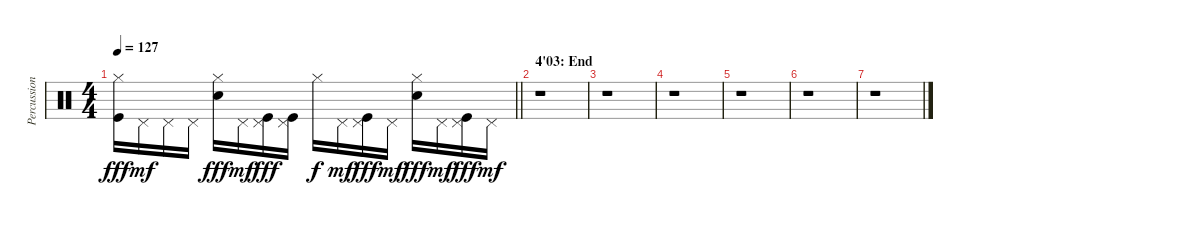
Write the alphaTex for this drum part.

\track ("Percussions" "Percussion") {instrument percussion}
\staff {score}
\articulation defaults
\ts (4 4)
\tempo 127
\clef neutral
\barLineRight lightlight
\ks c
("Hi-Hat (closed)" "Kick (hit)").16{dy fff} "Pedal Hi-Hat (hit)".16{dy mf} "Pedal Hi-Hat (hit)".16 "Pedal Hi-Hat (hit)".16 ("Hi-Hat (closed)" "Electric Snare (hit)").16{dy fff} "Pedal Hi-Hat (hit)".16{dy mf} ("Pedal Hi-Hat (hit)" "Kick (hit)").16{dy fff} ("Pedal Hi-Hat (hit)" "Kick (hit)").16 "Hi-Hat (closed)".16{dy f} "Pedal Hi-Hat (hit)".16{dy mf} ("Pedal Hi-Hat (hit)" "Kick (hit)").16{dy fff} "Pedal Hi-Hat (hit)".16{dy mf} ("Hi-Hat (closed)" "Electric Snare (hit)").16{dy fff} "Pedal Hi-Hat (hit)".16{dy mf} ("Pedal Hi-Hat (hit)" "Kick (hit)").16{dy fff} "Pedal Hi-Hat (hit)".16{dy mf} |
\section ("" "4'03: End")
r.1 |
r.1 |
r.1 |
r.1 |
r.1 |
r.1
